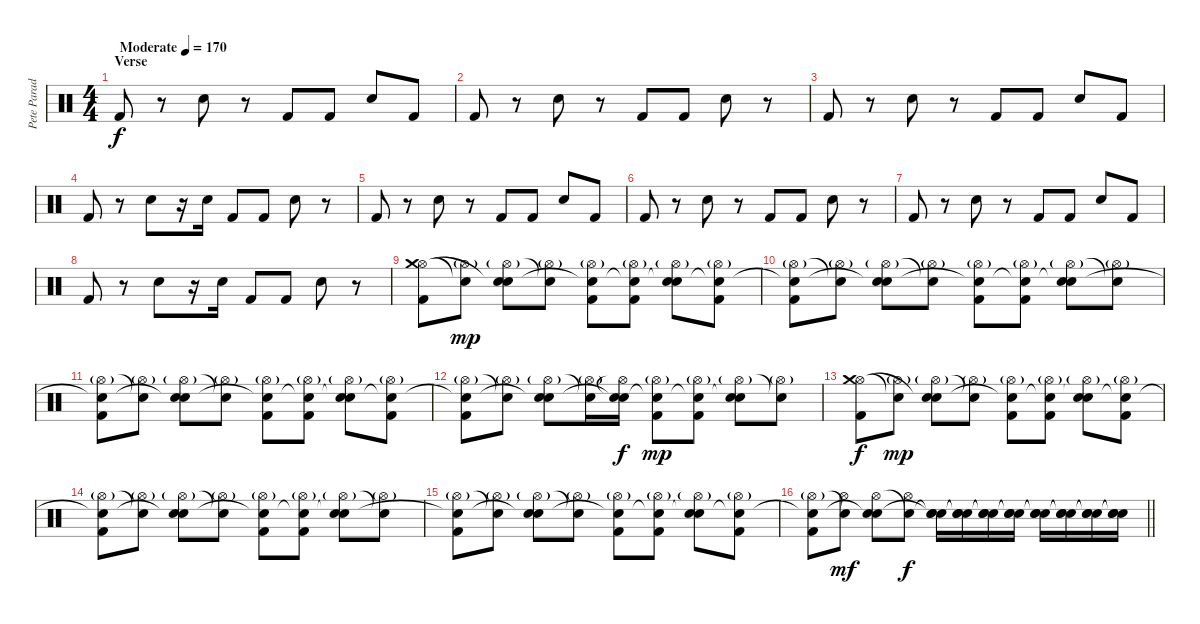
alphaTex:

\track ("Pete Parada" "Pete Parad") {instrument percussion}
\staff {score}
\articulation defaults
\ts (4 4)
\section ("" "Verse")
\tempo (170 "Moderate")
\clef neutral
\ks c "Kick (hit) 2".8{dy f}
r.8 "Snare (hit) 2".8 r.8 "Kick (hit) 2".8 "Kick (hit) 2".8 "Snare (hit) 2".8 "Kick (hit) 2".8 |
"Kick (hit) 2".8 r.8 "Snare (hit) 2".8 r.8 "Kick (hit) 2".8 "Kick (hit) 2".8 "Snare (hit) 2".8 r.8 |
"Kick (hit) 2".8 r.8 "Snare (hit) 2".8 r.8 "Kick (hit) 2".8 "Kick (hit) 2".8 "Snare (hit) 2".8 "Kick (hit) 2".8 |
"Kick (hit) 2".8 r.8 "Snare (hit) 2".8 r.16 "Snare (hit) 2".16 "Kick (hit) 2".8 "Kick (hit) 2".8 "Snare (hit) 2".8 r.8 |
"Kick (hit) 2".8 r.8 "Snare (hit) 2".8 r.8 "Kick (hit) 2".8 "Kick (hit) 2".8 "Snare (hit) 2".8 "Kick (hit) 2".8 |
"Kick (hit) 2".8 r.8 "Snare (hit) 2".8 r.8 "Kick (hit) 2".8 "Kick (hit) 2".8 "Snare (hit) 2".8 r.8 |
"Kick (hit) 2".8 r.8 "Snare (hit) 2".8 r.8 "Kick (hit) 2".8 "Kick (hit) 2".8 "Snare (hit) 2".8 "Kick (hit) 2".8 |
"Kick (hit) 2".8 r.8 "Snare (hit) 2".8 r.16 "Snare (hit) 2".16 "Kick (hit) 2".8 "Kick (hit) 2".8 "Snare (hit) 2".8 r.8 |
("Kick (hit) 2" "Hi-Hat (open)" "Crash medium (hit)").8 ("Hi-Hat (open)"{g} "Snare (hit)"{t}).8{dy mp} ("Snare (hit) 2" "Hi-Hat (open)"{g} "Snare (hit)"{t}).8 ("Hi-Hat (open)"{g} "Snare (hit)"{t}).8 ("Kick (hit) 2" "Hi-Hat (open)"{g} "Snare (hit)"{t}).8 ("Kick (hit) 2" "Hi-Hat (open)"{g} "Snare (hit)"{t}).8 ("Snare (hit) 2" "Hi-Hat (open)"{g} "Snare (hit)"{t}).8 ("Kick (hit) 2" "Hi-Hat (open)"{g} "Snare (hit)"{t}).8 |
("Kick (hit) 2" "Hi-Hat (open)"{g} "Snare (hit)"{t}).8 ("Hi-Hat (open)"{g} "Snare (hit)"{t}).8 ("Snare (hit) 2" "Hi-Hat (open)"{g} "Snare (hit)"{t}).8 ("Hi-Hat (open)"{g} "Snare (hit)"{t}).8 ("Kick (hit) 2" "Hi-Hat (open)"{g} "Snare (hit)"{t}).8 ("Kick (hit) 2" "Hi-Hat (open)"{g} "Snare (hit)"{t}).8 ("Snare (hit) 2" "Hi-Hat (open)"{g} "Snare (hit)"{t}).8 ("Hi-Hat (open)"{g} "Snare (hit)"{t}).8 |
("Kick (hit) 2" "Hi-Hat (open)"{g} "Snare (hit)"{t}).8 ("Hi-Hat (open)"{g} "Snare (hit)"{t}).8 ("Snare (hit) 2" "Hi-Hat (open)"{g} "Snare (hit)"{t}).8 ("Hi-Hat (open)"{g} "Snare (hit)"{t}).8 ("Kick (hit) 2" "Hi-Hat (open)"{g} "Snare (hit)"{t}).8 ("Kick (hit) 2" "Hi-Hat (open)"{g} "Snare (hit)"{t}).8 ("Snare (hit) 2" "Hi-Hat (open)"{g} "Snare (hit)"{t}).8 ("Kick (hit) 2" "Hi-Hat (open)"{g} "Snare (hit)"{t}).8 |
("Kick (hit) 2" "Hi-Hat (open)"{g} "Snare (hit)"{t}).8 ("Hi-Hat (open)"{g} "Snare (hit)"{t}).8 ("Snare (hit) 2" "Hi-Hat (open)"{g} "Snare (hit)"{t}).8 ("Hi-Hat (open)"{g} "Snare (hit)"{t}).16 ("Snare (hit) 2" "Hi-Hat (open)"{t} "Snare (hit)"{t}).16{dy f} ("Kick (hit) 2" "Hi-Hat (open)"{g} "Snare (hit)"{t}).8{dy mp} ("Kick (hit) 2" "Hi-Hat (open)"{g} "Snare (hit)"{t}).8 ("Snare (hit) 2" "Hi-Hat (open)"{g} "Snare (hit)"{t}).8 ("Hi-Hat (open)"{g} "Snare (hit)"{t}).8 |
("Kick (hit) 2" "Hi-Hat (open)" "Crash medium (hit)").8{dy f} ("Hi-Hat (open)"{g} "Snare (hit)"{t}).8{dy mp} ("Snare (hit) 2" "Hi-Hat (open)"{g} "Snare (hit)"{t}).8 ("Hi-Hat (open)"{g} "Snare (hit)"{t}).8 ("Kick (hit) 2" "Hi-Hat (open)"{g} "Snare (hit)"{t}).8 ("Kick (hit) 2" "Hi-Hat (open)"{g} "Snare (hit)"{t}).8 ("Snare (hit) 2" "Hi-Hat (open)"{g} "Snare (hit)"{t}).8 ("Kick (hit) 2" "Hi-Hat (open)"{g} "Snare (hit)"{t}).8 |
("Kick (hit) 2" "Hi-Hat (open)"{g} "Snare (hit)"{t}).8 ("Hi-Hat (open)"{g} "Snare (hit)"{t}).8 ("Snare (hit) 2" "Hi-Hat (open)"{g} "Snare (hit)"{t}).8 ("Hi-Hat (open)"{g} "Snare (hit)"{t}).8 ("Kick (hit) 2" "Hi-Hat (open)"{g} "Snare (hit)"{t}).8 ("Kick (hit) 2" "Hi-Hat (open)"{g} "Snare (hit)"{t}).8 ("Snare (hit) 2" "Hi-Hat (open)"{g} "Snare (hit)"{t}).8 ("Hi-Hat (open)"{g} "Snare (hit)"{t}).8 |
("Kick (hit) 2" "Hi-Hat (open)"{g} "Snare (hit)"{t}).8 ("Hi-Hat (open)"{g} "Snare (hit)"{t}).8 ("Snare (hit) 2" "Hi-Hat (open)"{g} "Snare (hit)"{t}).8 ("Hi-Hat (open)"{g} "Snare (hit)"{t}).8 ("Kick (hit) 2" "Hi-Hat (open)"{g} "Snare (hit)"{t}).8 ("Kick (hit) 2" "Hi-Hat (open)"{g} "Snare (hit)"{t}).8 ("Snare (hit) 2" "Hi-Hat (open)"{g} "Snare (hit)"{t}).8 ("Kick (hit) 2" "Hi-Hat (open)"{g} "Snare (hit)"{t}).8 |
\barLineRight lightlight
("Kick (hit) 2" "Hi-Hat (open)"{g} "Snare (hit)"{t}).8 ("Hi-Hat (open)" "Snare (hit)"{t}).8{dy mf} ("Snare (hit) 2" "Hi-Hat (open)" "Snare (hit)"{t}).8 ("Hi-Hat (open)" "Snare (hit)"{t}).8{dy f} ("Snare (hit) 2" "Snare (hit)"{t} "Snare (hit)"{t}).16 ("Snare (hit) 2" "Snare (hit)"{t} "Snare (hit)"{t}).16 ("Snare (hit) 2" "Snare (hit)"{t} "Snare (hit)"{t}).16 ("Snare (hit) 2" "Snare (hit)"{t} "Snare (hit)"{t}).16 ("Snare (hit) 2" "Snare (hit)"{t} "Snare (hit)"{t}).16 ("Snare (hit) 2" "Snare (hit)"{t} "Snare (hit)"{t}).16 ("Snare (hit) 2" "Snare (hit)"{t} "Snare (hit)"{t}).16 ("Snare (hit) 2" "Snare (hit)"{t} "Snare (hit)"{t}).16
